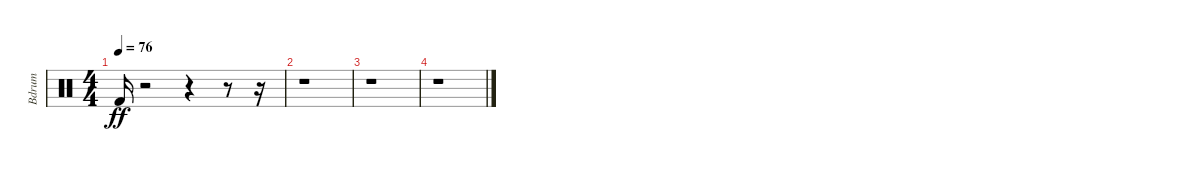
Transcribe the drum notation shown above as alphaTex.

\track ("Bdrum" "Bdrum") {instrument percussion}
\staff {score}
\articulation defaults
\ts (4 4)
\tempo 76
\clef neutral
\ks c "Kick (hit) 2".16{dy ff}
r.2 r.4 r.8 r.16 |
r.1 |
r.1 |
r.1
